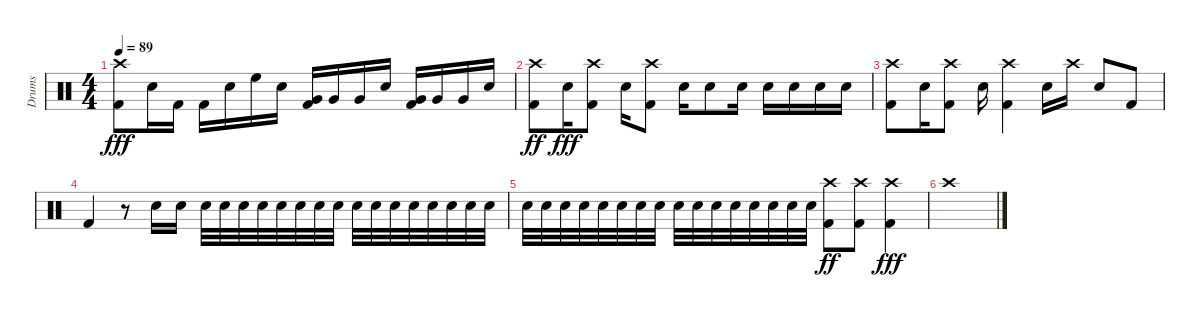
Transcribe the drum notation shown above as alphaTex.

\track ("Drums" "Drums") {instrument percussion}
\staff {score}
\articulation defaults
\ts (4 4)
\tempo 89
\clef neutral
\ks c
("Kick (hit) 2" "Crash high (hit)").8{dy fff volume 14} "Snare (hit) 2".16 "Kick (hit) 2".16 "Kick (hit) 2".16 "Snare (hit) 2".16 "High Floor Tom (hit)".16 "Snare (hit) 2".16 ("Kick (hit) 2" "Very Low Tom (hit)").16 "Very Low Tom (hit)".16 "Very Low Tom (hit)".16 "Snare (hit) 2".16 ("Kick (hit) 2" "Very Low Tom (hit)").16 "Very Low Tom (hit)".16 "Very Low Tom (hit)".16 "Snare (hit) 2".16 |
("Kick (hit) 2" "Crash high (hit)").8{dy ff} "Snare (hit) 2".16{dy fff} ("Kick (hit) 2" "Crash high (hit)").8 "Snare (hit) 2".16 ("Kick (hit) 2" "Crash high (hit)").8 "Snare (hit) 2".16 "Snare (hit) 2".8 "Snare (hit) 2".16 "Snare (hit) 2".16 "Snare (hit) 2".16 "Snare (hit) 2".16 "Snare (hit) 2".16 |
("Kick (hit) 2" "Crash high (hit)").8 "Snare (hit) 2".16 ("Kick (hit) 2" "Crash high (hit)").8 "Snare (hit) 2".16 ("Kick (hit) 2" "Crash high (hit)").4 "Snare (hit) 2".16 "Crash high (hit)".16 "Snare (hit) 2".8 "Kick (hit) 2".8 |
"Kick (hit) 2".4 r.8 "Snare (hit) 2".16 "Snare (hit) 2".16 "Snare (hit) 2".32 "Snare (hit) 2".32 "Snare (hit) 2".32 "Snare (hit) 2".32 "Snare (hit) 2".32 "Snare (hit) 2".32 "Snare (hit) 2".32 "Snare (hit) 2".32 "Snare (hit) 2".32 "Snare (hit) 2".32 "Snare (hit) 2".32 "Snare (hit) 2".32 "Snare (hit) 2".32 "Snare (hit) 2".32 "Snare (hit) 2".32 "Snare (hit) 2".32 |
"Snare (hit) 2".32 "Snare (hit) 2".32 "Snare (hit) 2".32 "Snare (hit) 2".32 "Snare (hit) 2".32 "Snare (hit) 2".32 "Snare (hit) 2".32 "Snare (hit) 2".32 "Snare (hit) 2".32 "Snare (hit) 2".32 "Snare (hit) 2".32 "Snare (hit) 2".32 "Snare (hit) 2".32 "Snare (hit) 2".32 "Snare (hit) 2".32 "Snare (hit) 2".32 ("Kick (hit) 2" "Crash high (hit)").8{dy ff} ("Crash high (hit)" "Kick (hit) 2").8 ("Kick (hit) 2" "Crash high (hit)").4{dy fff} |
"Crash high (hit)".1
